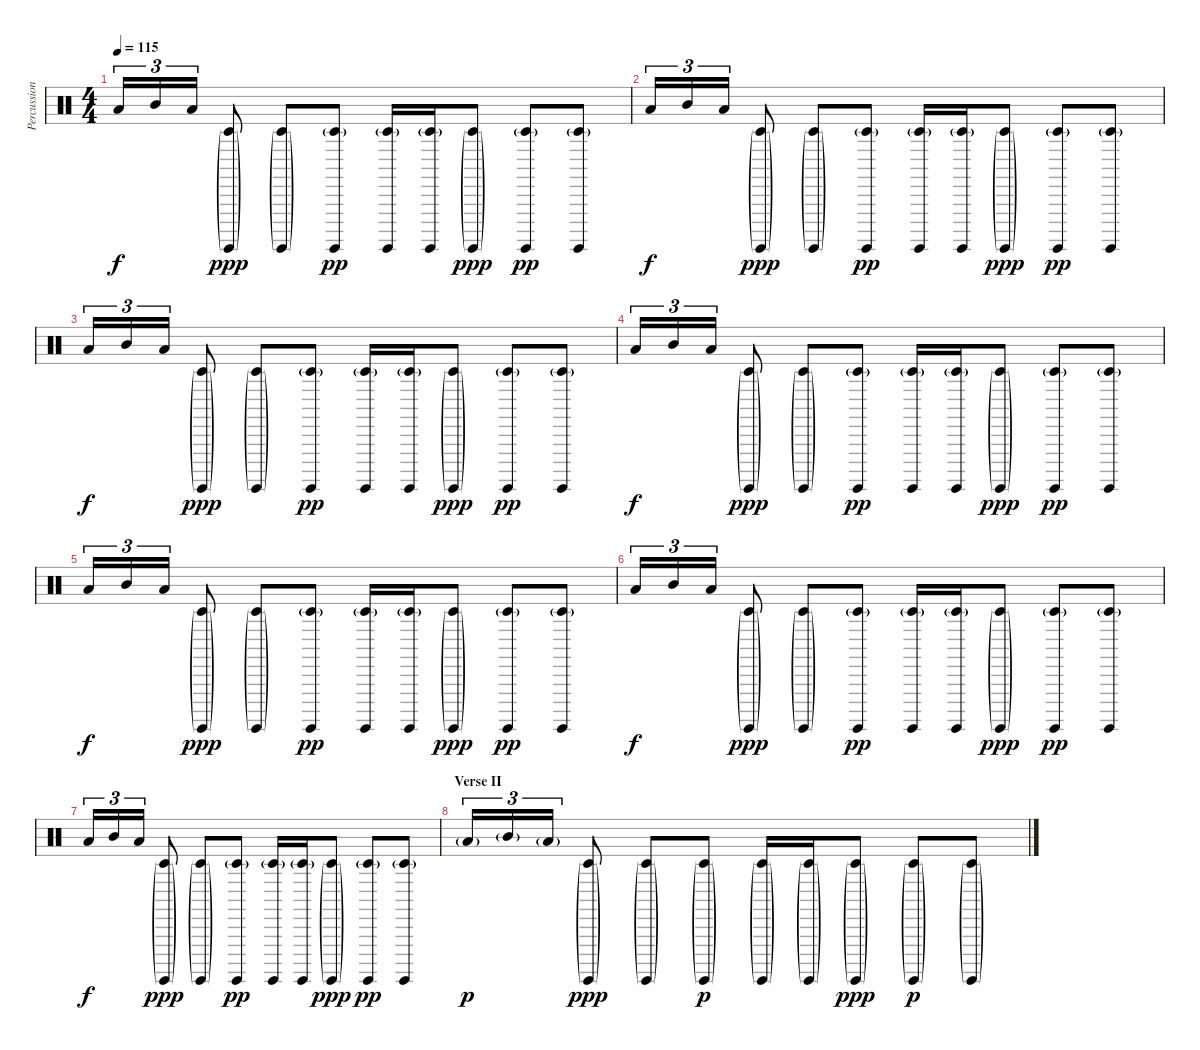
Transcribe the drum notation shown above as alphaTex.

\track ("Percussion - Low Tom" "Percussion") {instrument percussion}
\staff {score}
\articulation defaults
\ts (4 4)
\tempo 115
\clef neutral
\ks c "Low Tom (hit)".16{tu (3 2) dy f} "Mid Tom (hit)".16{tu (3 2)} "Low Tom (hit)".16{tu (3 2)}
("Timbale low (hit)"{g} "Surdo (hit)"{g}).8{dy ppp} ("Timbale low (hit)"{g} "Surdo (hit)"{g}).8 ("Timbale low (hit)"{g} "Surdo (hit)").8{dy pp} ("Timbale low (hit)"{g} "Surdo (hit)").16 ("Timbale low (hit)"{g} "Surdo (hit)").16 ("Timbale low (hit)"{g} "Surdo (hit)"{g}).8{dy ppp} ("Timbale low (hit)"{g} "Surdo (hit)").8{dy pp} ("Timbale low (hit)"{g} "Surdo (hit)").8 |
"Low Tom (hit)".16{tu (3 2) dy f} "Mid Tom (hit)".16{tu (3 2)} "Low Tom (hit)".16{tu (3 2)} ("Timbale low (hit)"{g} "Surdo (hit)"{g}).8{dy ppp} ("Timbale low (hit)"{g} "Surdo (hit)"{g}).8 ("Timbale low (hit)"{g} "Surdo (hit)").8{dy pp} ("Timbale low (hit)"{g} "Surdo (hit)").16 ("Timbale low (hit)"{g} "Surdo (hit)").16 ("Timbale low (hit)"{g} "Surdo (hit)"{g}).8{dy ppp} ("Timbale low (hit)"{g} "Surdo (hit)").8{dy pp} ("Timbale low (hit)"{g} "Surdo (hit)").8 |
"Low Tom (hit)".16{tu (3 2) dy f} "Mid Tom (hit)".16{tu (3 2)} "Low Tom (hit)".16{tu (3 2)} ("Timbale low (hit)"{g} "Surdo (hit)"{g}).8{dy ppp} ("Timbale low (hit)"{g} "Surdo (hit)"{g}).8 ("Timbale low (hit)"{g} "Surdo (hit)").8{dy pp} ("Timbale low (hit)"{g} "Surdo (hit)").16 ("Timbale low (hit)"{g} "Surdo (hit)").16 ("Timbale low (hit)"{g} "Surdo (hit)"{g}).8{dy ppp} ("Timbale low (hit)"{g} "Surdo (hit)").8{dy pp} ("Timbale low (hit)"{g} "Surdo (hit)").8 |
"Low Tom (hit)".16{tu (3 2) dy f} "Mid Tom (hit)".16{tu (3 2)} "Low Tom (hit)".16{tu (3 2)} ("Timbale low (hit)"{g} "Surdo (hit)"{g}).8{dy ppp} ("Timbale low (hit)"{g} "Surdo (hit)"{g}).8 ("Timbale low (hit)"{g} "Surdo (hit)").8{dy pp} ("Timbale low (hit)"{g} "Surdo (hit)").16 ("Timbale low (hit)"{g} "Surdo (hit)").16 ("Timbale low (hit)"{g} "Surdo (hit)"{g}).8{dy ppp} ("Timbale low (hit)"{g} "Surdo (hit)").8{dy pp} ("Timbale low (hit)"{g} "Surdo (hit)").8 |
"Low Tom (hit)".16{tu (3 2) dy f} "Mid Tom (hit)".16{tu (3 2)} "Low Tom (hit)".16{tu (3 2)} ("Timbale low (hit)"{g} "Surdo (hit)"{g}).8{dy ppp} ("Timbale low (hit)"{g} "Surdo (hit)"{g}).8 ("Timbale low (hit)"{g} "Surdo (hit)").8{dy pp} ("Timbale low (hit)"{g} "Surdo (hit)").16 ("Timbale low (hit)"{g} "Surdo (hit)").16 ("Timbale low (hit)"{g} "Surdo (hit)"{g}).8{dy ppp} ("Timbale low (hit)"{g} "Surdo (hit)").8{dy pp} ("Timbale low (hit)"{g} "Surdo (hit)").8 |
"Low Tom (hit)".16{tu (3 2) dy f} "Mid Tom (hit)".16{tu (3 2)} "Low Tom (hit)".16{tu (3 2)} ("Timbale low (hit)"{g} "Surdo (hit)"{g}).8{dy ppp} ("Timbale low (hit)"{g} "Surdo (hit)"{g}).8 ("Timbale low (hit)"{g} "Surdo (hit)").8{dy pp} ("Timbale low (hit)"{g} "Surdo (hit)").16 ("Timbale low (hit)"{g} "Surdo (hit)").16 ("Timbale low (hit)"{g} "Surdo (hit)"{g}).8{dy ppp} ("Timbale low (hit)"{g} "Surdo (hit)").8{dy pp} ("Timbale low (hit)"{g} "Surdo (hit)").8 |
"Low Tom (hit)".16{tu (3 2) dy f} "Mid Tom (hit)".16{tu (3 2)} "Low Tom (hit)".16{tu (3 2)} ("Timbale low (hit)"{g} "Surdo (hit)"{g}).8{dy ppp} ("Timbale low (hit)"{g} "Surdo (hit)"{g}).8 ("Timbale low (hit)"{g} "Surdo (hit)").8{dy pp} ("Timbale low (hit)"{g} "Surdo (hit)").16 ("Timbale low (hit)"{g} "Surdo (hit)").16 ("Timbale low (hit)"{g} "Surdo (hit)"{g}).8{dy ppp} ("Timbale low (hit)"{g} "Surdo (hit)").8{dy pp} ("Timbale low (hit)"{g} "Surdo (hit)").8 |
\section ("" "Verse II")
"Low Tom (hit)"{g}.16{tu (3 2) dy p} "Mid Tom (hit)"{g}.16{tu (3 2)} "Low Tom (hit)"{g}.16{tu (3 2)} ("Timbale low (hit)"{g} "Surdo (hit)"{g}).8{dy ppp} ("Timbale low (hit)"{g} "Surdo (hit)"{g}).8 ("Timbale low (hit)"{g} "Surdo (hit)"{g}).8{dy p} ("Timbale low (hit)"{g} "Surdo (hit)"{g}).16 ("Timbale low (hit)"{g} "Surdo (hit)"{g}).16 ("Timbale low (hit)"{g} "Surdo (hit)"{g}).8{dy ppp} ("Timbale low (hit)"{g} "Surdo (hit)"{g}).8{dy p} ("Timbale low (hit)"{g} "Surdo (hit)"{g}).8
